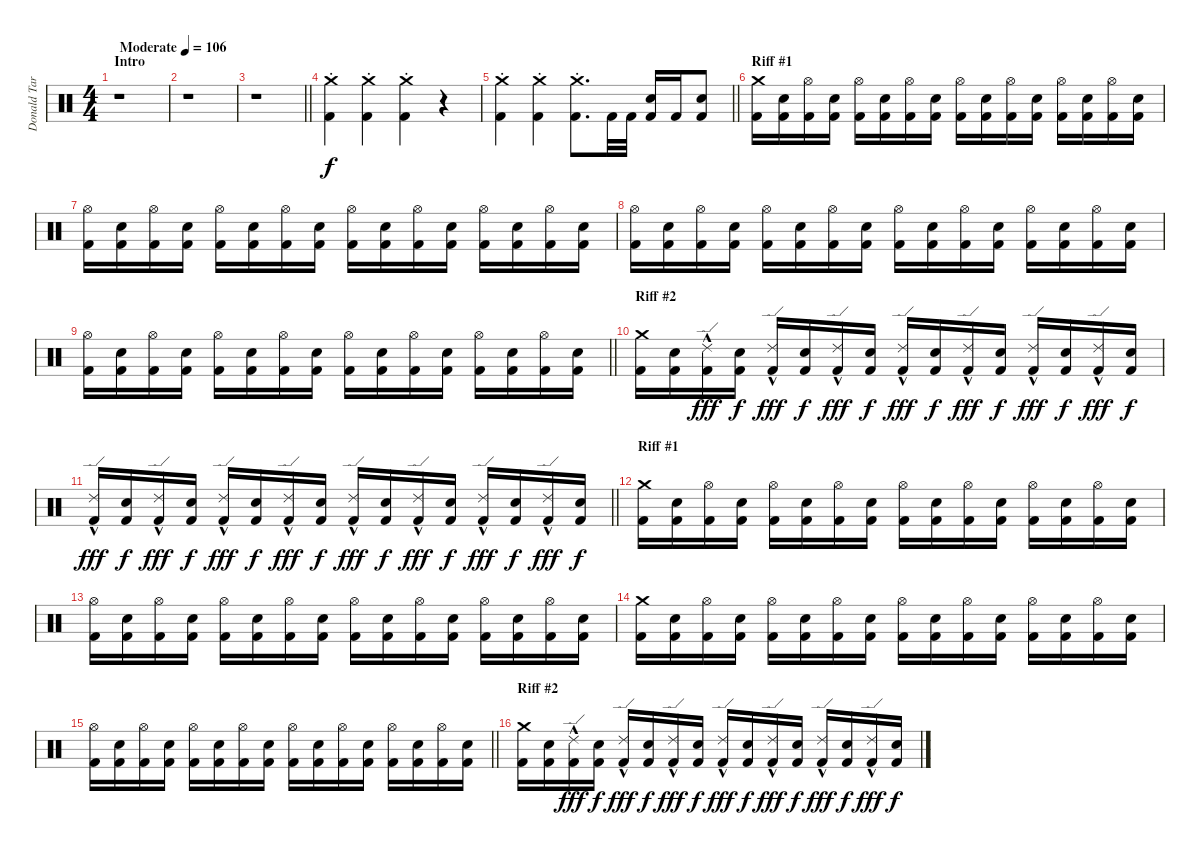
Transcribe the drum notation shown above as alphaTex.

\track ("Donald Tardy (Drums)" "Donald Tar") {instrument percussion}
\staff {score}
\articulation defaults
\ts (4 4)
\section ("" "Intro")
\tempo (106 "Moderate")
\clef neutral
\ks c
r.1{dy f} |
r.1 |
\barLineRight lightlight
r.1 |
("Kick (hit) 2" "Crash medium (hit)"{st}).4 ("Kick (hit) 2" "Crash medium (hit)"{st}).4 ("Kick (hit) 2" "Crash medium (hit)"{st}).4 r.4 |
\barLineRight lightlight
("Kick (hit) 2" "Crash medium (hit)"{st}).4 ("Kick (hit) 2" "Crash medium (hit)"{st}).4 ("Kick (hit) 2" "Crash medium (hit)"{st}).8{d} "Kick (hit) 2".32 "Kick (hit) 2".32 ("Kick (hit) 2" "Snare (hit) 2").16 "Kick (hit) 2".16 ("Kick (hit) 2" "Snare (hit) 2").8 |
\section ("" "Riff #1")
("Kick (hit) 2" "Crash medium (hit)").16 ("Kick (hit) 2" "Snare (hit) 2").16 ("Kick (hit) 2" "Hi-Hat (open)").16 ("Kick (hit) 2" "Snare (hit) 2").16 ("Kick (hit) 2" "Hi-Hat (open)").16 ("Kick (hit) 2" "Snare (hit) 2").16 ("Kick (hit) 2" "Hi-Hat (open)").16 ("Kick (hit) 2" "Snare (hit) 2").16 ("Kick (hit) 2" "Hi-Hat (open)").16 ("Kick (hit) 2" "Snare (hit) 2").16 ("Kick (hit) 2" "Hi-Hat (open)").16 ("Kick (hit) 2" "Snare (hit) 2").16 ("Kick (hit) 2" "Hi-Hat (open)").16 ("Kick (hit) 2" "Snare (hit) 2").16 ("Kick (hit) 2" "Hi-Hat (open)").16 ("Kick (hit) 2" "Snare (hit) 2").16 |
("Kick (hit) 2" "Hi-Hat (open)").16 ("Kick (hit) 2" "Snare (hit) 2").16 ("Kick (hit) 2" "Hi-Hat (open)").16 ("Kick (hit) 2" "Snare (hit) 2").16 ("Kick (hit) 2" "Hi-Hat (open)").16 ("Kick (hit) 2" "Snare (hit) 2").16 ("Kick (hit) 2" "Hi-Hat (open)").16 ("Kick (hit) 2" "Snare (hit) 2").16 ("Kick (hit) 2" "Hi-Hat (open)").16 ("Kick (hit) 2" "Snare (hit) 2").16 ("Kick (hit) 2" "Hi-Hat (open)").16 ("Kick (hit) 2" "Snare (hit) 2").16 ("Kick (hit) 2" "Hi-Hat (open)").16 ("Kick (hit) 2" "Snare (hit) 2").16 ("Kick (hit) 2" "Hi-Hat (open)").16 ("Kick (hit) 2" "Snare (hit) 2").16 |
("Kick (hit) 2" "Hi-Hat (open)").16 ("Kick (hit) 2" "Snare (hit) 2").16 ("Kick (hit) 2" "Hi-Hat (open)").16 ("Kick (hit) 2" "Snare (hit) 2").16 ("Kick (hit) 2" "Hi-Hat (open)").16 ("Kick (hit) 2" "Snare (hit) 2").16 ("Kick (hit) 2" "Hi-Hat (open)").16 ("Kick (hit) 2" "Snare (hit) 2").16 ("Kick (hit) 2" "Hi-Hat (open)").16 ("Kick (hit) 2" "Snare (hit) 2").16 ("Kick (hit) 2" "Hi-Hat (open)").16 ("Kick (hit) 2" "Snare (hit) 2").16 ("Kick (hit) 2" "Hi-Hat (open)").16 ("Kick (hit) 2" "Snare (hit) 2").16 ("Kick (hit) 2" "Hi-Hat (open)").16 ("Kick (hit) 2" "Snare (hit) 2").16 |
\barLineRight lightlight
("Kick (hit) 2" "Hi-Hat (open)").16 ("Kick (hit) 2" "Snare (hit) 2").16 ("Kick (hit) 2" "Hi-Hat (open)").16 ("Kick (hit) 2" "Snare (hit) 2").16 ("Kick (hit) 2" "Hi-Hat (open)").16 ("Kick (hit) 2" "Snare (hit) 2").16 ("Kick (hit) 2" "Hi-Hat (open)").16 ("Kick (hit) 2" "Snare (hit) 2").16 ("Kick (hit) 2" "Hi-Hat (open)").16 ("Kick (hit) 2" "Snare (hit) 2").16 ("Kick (hit) 2" "Hi-Hat (open)").16 ("Kick (hit) 2" "Snare (hit) 2").16 ("Kick (hit) 2" "Hi-Hat (open)").16 ("Kick (hit) 2" "Snare (hit) 2").16 ("Kick (hit) 2" "Hi-Hat (open)").16 ("Kick (hit) 2" "Snare (hit) 2").16 |
\section ("" "Riff #2")
("Kick (hit) 2" "Crash medium (hit)").16 ("Kick (hit) 2" "Snare (hit) 2").16 ("Kick (hit) 2" "Ride (edge) 2"{hac}).16{dy fff} ("Kick (hit) 2" "Snare (hit) 2").16{dy f} ("Kick (hit) 2" "Ride (edge) 2"{hac}).16{dy fff} ("Kick (hit) 2" "Snare (hit) 2").16{dy f} ("Kick (hit) 2" "Ride (edge) 2"{hac}).16{dy fff} ("Kick (hit) 2" "Snare (hit) 2").16{dy f} ("Kick (hit) 2" "Ride (edge) 2"{hac}).16{dy fff} ("Kick (hit) 2" "Snare (hit) 2").16{dy f} ("Kick (hit) 2" "Ride (edge) 2"{hac}).16{dy fff} ("Kick (hit) 2" "Snare (hit) 2").16{dy f} ("Kick (hit) 2" "Ride (edge) 2"{hac}).16{dy fff} ("Kick (hit) 2" "Snare (hit) 2").16{dy f} ("Kick (hit) 2" "Ride (edge) 2"{hac}).16{dy fff} ("Kick (hit) 2" "Snare (hit) 2").16{dy f} |
\barLineRight lightlight
("Kick (hit) 2" "Ride (edge) 2"{hac}).16{dy fff} ("Kick (hit) 2" "Snare (hit) 2").16{dy f} ("Kick (hit) 2" "Ride (edge) 2"{hac}).16{dy fff} ("Kick (hit) 2" "Snare (hit) 2").16{dy f} ("Kick (hit) 2" "Ride (edge) 2"{hac}).16{dy fff} ("Kick (hit) 2" "Snare (hit) 2").16{dy f} ("Kick (hit) 2" "Ride (edge) 2"{hac}).16{dy fff} ("Kick (hit) 2" "Snare (hit) 2").16{dy f} ("Kick (hit) 2" "Ride (edge) 2"{hac}).16{dy fff} ("Kick (hit) 2" "Snare (hit) 2").16{dy f} ("Kick (hit) 2" "Ride (edge) 2"{hac}).16{dy fff} ("Kick (hit) 2" "Snare (hit) 2").16{dy f} ("Kick (hit) 2" "Ride (edge) 2"{hac}).16{dy fff} ("Kick (hit) 2" "Snare (hit) 2").16{dy f} ("Kick (hit) 2" "Ride (edge) 2"{hac}).16{dy fff} ("Kick (hit) 2" "Snare (hit) 2").16{dy f} |
\section ("" "Riff #1")
("Kick (hit) 2" "Crash medium (hit)").16 ("Kick (hit) 2" "Snare (hit) 2").16 ("Kick (hit) 2" "Hi-Hat (open)").16 ("Kick (hit) 2" "Snare (hit) 2").16 ("Kick (hit) 2" "Hi-Hat (open)").16 ("Kick (hit) 2" "Snare (hit) 2").16 ("Kick (hit) 2" "Hi-Hat (open)").16 ("Kick (hit) 2" "Snare (hit) 2").16 ("Kick (hit) 2" "Hi-Hat (open)").16 ("Kick (hit) 2" "Snare (hit) 2").16 ("Kick (hit) 2" "Hi-Hat (open)").16 ("Kick (hit) 2" "Snare (hit) 2").16 ("Kick (hit) 2" "Hi-Hat (open)").16 ("Kick (hit) 2" "Snare (hit) 2").16 ("Kick (hit) 2" "Hi-Hat (open)").16 ("Kick (hit) 2" "Snare (hit) 2").16 |
("Kick (hit) 2" "Hi-Hat (open)").16 ("Kick (hit) 2" "Snare (hit) 2").16 ("Kick (hit) 2" "Hi-Hat (open)").16 ("Kick (hit) 2" "Snare (hit) 2").16 ("Kick (hit) 2" "Hi-Hat (open)").16 ("Kick (hit) 2" "Snare (hit) 2").16 ("Kick (hit) 2" "Hi-Hat (open)").16 ("Kick (hit) 2" "Snare (hit) 2").16 ("Kick (hit) 2" "Hi-Hat (open)").16 ("Kick (hit) 2" "Snare (hit) 2").16 ("Kick (hit) 2" "Hi-Hat (open)").16 ("Kick (hit) 2" "Snare (hit) 2").16 ("Kick (hit) 2" "Hi-Hat (open)").16 ("Kick (hit) 2" "Snare (hit) 2").16 ("Kick (hit) 2" "Hi-Hat (open)").16 ("Kick (hit) 2" "Snare (hit) 2").16 |
("Kick (hit) 2" "Crash medium (hit)").16 ("Kick (hit) 2" "Snare (hit) 2").16 ("Kick (hit) 2" "Hi-Hat (open)").16 ("Kick (hit) 2" "Snare (hit) 2").16 ("Kick (hit) 2" "Hi-Hat (open)").16 ("Kick (hit) 2" "Snare (hit) 2").16 ("Kick (hit) 2" "Hi-Hat (open)").16 ("Kick (hit) 2" "Snare (hit) 2").16 ("Kick (hit) 2" "Hi-Hat (open)").16 ("Kick (hit) 2" "Snare (hit) 2").16 ("Kick (hit) 2" "Hi-Hat (open)").16 ("Kick (hit) 2" "Snare (hit) 2").16 ("Kick (hit) 2" "Hi-Hat (open)").16 ("Kick (hit) 2" "Snare (hit) 2").16 ("Kick (hit) 2" "Hi-Hat (open)").16 ("Kick (hit) 2" "Snare (hit) 2").16 |
\barLineRight lightlight
("Kick (hit) 2" "Hi-Hat (open)").16 ("Kick (hit) 2" "Snare (hit) 2").16 ("Kick (hit) 2" "Hi-Hat (open)").16 ("Kick (hit) 2" "Snare (hit) 2").16 ("Kick (hit) 2" "Hi-Hat (open)").16 ("Kick (hit) 2" "Snare (hit) 2").16 ("Kick (hit) 2" "Hi-Hat (open)").16 ("Kick (hit) 2" "Snare (hit) 2").16 ("Kick (hit) 2" "Hi-Hat (open)").16 ("Kick (hit) 2" "Snare (hit) 2").16 ("Kick (hit) 2" "Hi-Hat (open)").16 ("Kick (hit) 2" "Snare (hit) 2").16 ("Kick (hit) 2" "Hi-Hat (open)").16 ("Kick (hit) 2" "Snare (hit) 2").16 ("Kick (hit) 2" "Hi-Hat (open)").16 ("Kick (hit) 2" "Snare (hit) 2").16 |
\section ("" "Riff #2")
("Kick (hit) 2" "Crash medium (hit)").16 ("Kick (hit) 2" "Snare (hit) 2").16 ("Kick (hit) 2" "Ride (edge) 2"{hac}).16{dy fff} ("Kick (hit) 2" "Snare (hit) 2").16{dy f} ("Kick (hit) 2" "Ride (edge) 2"{hac}).16{dy fff} ("Kick (hit) 2" "Snare (hit) 2").16{dy f} ("Kick (hit) 2" "Ride (edge) 2"{hac}).16{dy fff} ("Kick (hit) 2" "Snare (hit) 2").16{dy f} ("Kick (hit) 2" "Ride (edge) 2"{hac}).16{dy fff} ("Kick (hit) 2" "Snare (hit) 2").16{dy f} ("Kick (hit) 2" "Ride (edge) 2"{hac}).16{dy fff} ("Kick (hit) 2" "Snare (hit) 2").16{dy f} ("Kick (hit) 2" "Ride (edge) 2"{hac}).16{dy fff} ("Kick (hit) 2" "Snare (hit) 2").16{dy f} ("Kick (hit) 2" "Ride (edge) 2"{hac}).16{dy fff} ("Kick (hit) 2" "Snare (hit) 2").16{dy f}
